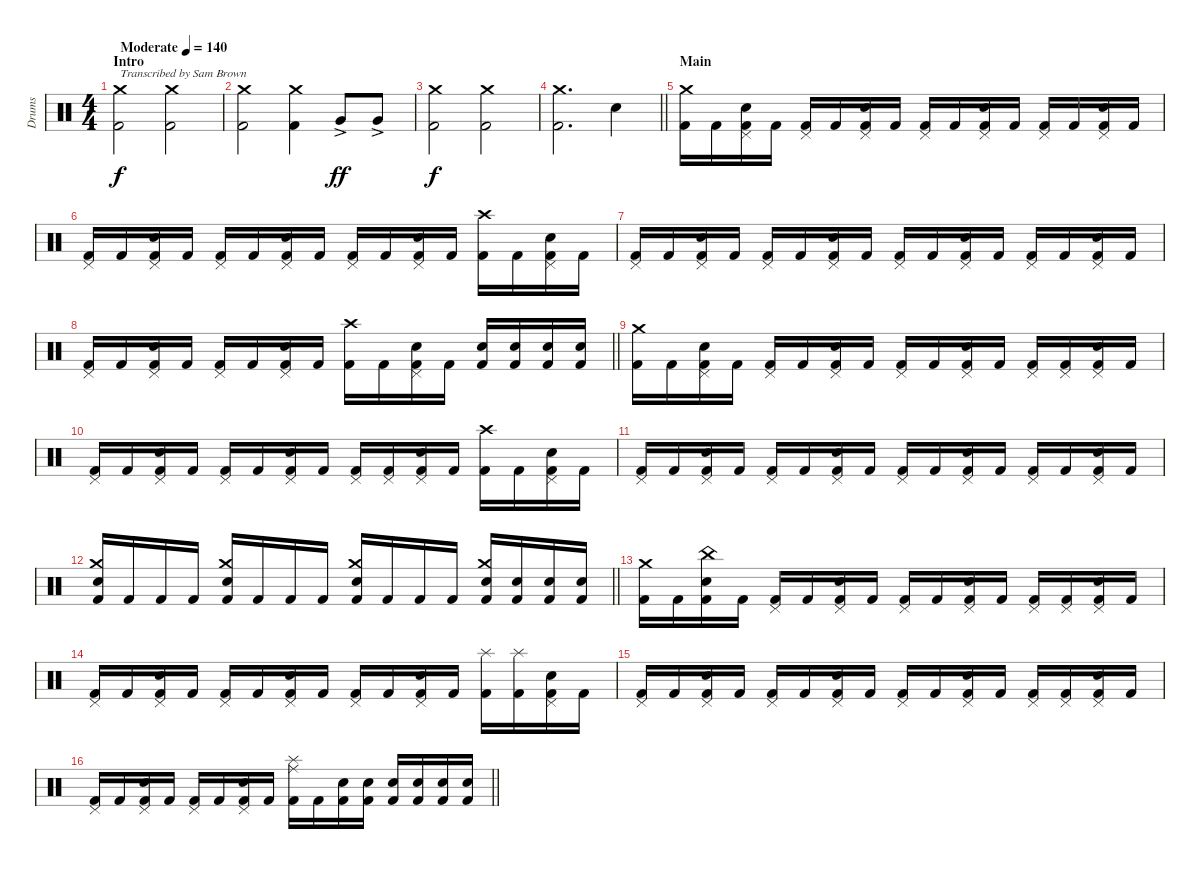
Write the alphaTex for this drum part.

\track ("Drums" "Drums") {instrument percussion}
\staff {score}
\articulation defaults
\ts (4 4)
\section ("" "Intro")
\tempo (140 "Moderate")
\clef neutral
\ks c
("Kick (hit) 2" "Crash medium (hit)").2{txt "Transcribed by Sam Brown" dy f} ("Kick (hit) 2" "Crash medium (hit)").2 |
("Kick (hit) 2" "Crash medium (hit)").2 ("Kick (hit) 2" "Crash medium (hit)").4 "Very Low Tom (hit)"{ac}.8{dy ff} "Very Low Tom (hit)"{ac}.8 |
("Kick (hit) 2" "Crash medium (hit)").2{dy f} ("Kick (hit) 2" "Crash medium (hit)").2 |
\barLineRight lightlight
("Kick (hit) 2" "Crash medium (hit)").2{d} "Snare (hit) 2".4 |
\section ("" "Main")
("Kick (hit) 2" "Crash medium (hit)").16 "Kick (hit) 2".16 ("Kick (hit) 2" "Snare (hit) 2" "Pedal Hi-Hat (hit)").16 "Kick (hit) 2".16 ("Kick (hit) 2" "Pedal Hi-Hat (hit)").16 "Kick (hit) 2".16 ("Kick (hit) 2" "Snare (hit) 2" "Pedal Hi-Hat (hit)").16 "Kick (hit) 2".16 ("Kick (hit) 2" "Pedal Hi-Hat (hit)").16 "Kick (hit) 2".16 ("Kick (hit) 2" "Snare (hit) 2" "Pedal Hi-Hat (hit)").16 "Kick (hit) 2".16 ("Kick (hit) 2" "Pedal Hi-Hat (hit)").16 "Kick (hit) 2".16 ("Kick (hit) 2" "Snare (hit) 2" "Pedal Hi-Hat (hit)").16 "Kick (hit) 2".16 |
("Kick (hit) 2" "Pedal Hi-Hat (hit)").16 "Kick (hit) 2".16 ("Kick (hit) 2" "Snare (hit) 2" "Pedal Hi-Hat (hit)").16 "Kick (hit) 2".16 ("Kick (hit) 2" "Pedal Hi-Hat (hit)").16 "Kick (hit) 2".16 ("Kick (hit) 2" "Snare (hit) 2" "Pedal Hi-Hat (hit)").16 "Kick (hit) 2".16 ("Kick (hit) 2" "Pedal Hi-Hat (hit)").16 "Kick (hit) 2".16 ("Kick (hit) 2" "Snare (hit) 2" "Pedal Hi-Hat (hit)").16 "Kick (hit) 2".16 ("Kick (hit) 2" "Crash high (hit)").16 "Kick (hit) 2".16 ("Kick (hit) 2" "Snare (hit) 2" "Pedal Hi-Hat (hit)").16 "Kick (hit) 2".16 |
("Kick (hit) 2" "Pedal Hi-Hat (hit)").16 "Kick (hit) 2".16 ("Kick (hit) 2" "Snare (hit) 2" "Pedal Hi-Hat (hit)").16 "Kick (hit) 2".16 ("Kick (hit) 2" "Pedal Hi-Hat (hit)").16 "Kick (hit) 2".16 ("Kick (hit) 2" "Snare (hit) 2" "Pedal Hi-Hat (hit)").16 "Kick (hit) 2".16 ("Kick (hit) 2" "Pedal Hi-Hat (hit)").16 "Kick (hit) 2".16 ("Kick (hit) 2" "Snare (hit) 2" "Pedal Hi-Hat (hit)").16 "Kick (hit) 2".16 ("Kick (hit) 2" "Pedal Hi-Hat (hit)").16 "Kick (hit) 2".16 ("Kick (hit) 2" "Snare (hit) 2" "Pedal Hi-Hat (hit)").16 "Kick (hit) 2".16 |
\barLineRight lightlight
("Kick (hit) 2" "Pedal Hi-Hat (hit)").16 "Kick (hit) 2".16 ("Kick (hit) 2" "Snare (hit) 2" "Pedal Hi-Hat (hit)").16 "Kick (hit) 2".16 ("Kick (hit) 2" "Pedal Hi-Hat (hit)").16 "Kick (hit) 2".16 ("Kick (hit) 2" "Snare (hit) 2" "Pedal Hi-Hat (hit)").16 "Kick (hit) 2".16 ("Kick (hit) 2" "Crash high (hit)").16 "Kick (hit) 2".16 ("Kick (hit) 2" "Snare (hit) 2" "Pedal Hi-Hat (hit)").16 "Kick (hit) 2".16 ("Kick (hit) 2" "Snare (hit) 2").16 ("Kick (hit) 2" "Snare (hit) 2").16 ("Kick (hit) 2" "Snare (hit) 2").16 ("Kick (hit) 2" "Snare (hit) 2").16 |
\section ("" "")
("Kick (hit) 2" "Crash medium (hit)").16 "Kick (hit) 2".16 ("Kick (hit) 2" "Snare (hit) 2" "Pedal Hi-Hat (hit)").16 "Kick (hit) 2".16 ("Kick (hit) 2" "Pedal Hi-Hat (hit)").16 "Kick (hit) 2".16 ("Kick (hit) 2" "Snare (hit) 2" "Pedal Hi-Hat (hit)").16 "Kick (hit) 2".16 ("Kick (hit) 2" "Pedal Hi-Hat (hit)").16 "Kick (hit) 2".16 ("Kick (hit) 2" "Snare (hit) 2" "Pedal Hi-Hat (hit)").16 "Kick (hit) 2".16 ("Kick (hit) 2" "Pedal Hi-Hat (hit)").16 ("Kick (hit) 2" "Pedal Hi-Hat (hit)").16 ("Kick (hit) 2" "Snare (hit) 2" "Pedal Hi-Hat (hit)").16 "Kick (hit) 2".16 |
("Kick (hit) 2" "Pedal Hi-Hat (hit)").16 "Kick (hit) 2".16 ("Kick (hit) 2" "Snare (hit) 2" "Pedal Hi-Hat (hit)").16 "Kick (hit) 2".16 ("Kick (hit) 2" "Pedal Hi-Hat (hit)").16 "Kick (hit) 2".16 ("Kick (hit) 2" "Snare (hit) 2" "Pedal Hi-Hat (hit)").16 "Kick (hit) 2".16 ("Kick (hit) 2" "Pedal Hi-Hat (hit)").16 ("Kick (hit) 2" "Pedal Hi-Hat (hit)").16 ("Kick (hit) 2" "Snare (hit) 2" "Pedal Hi-Hat (hit)").16 "Kick (hit) 2".16 ("Kick (hit) 2" "Crash high (hit)").16 "Kick (hit) 2".16 ("Kick (hit) 2" "Snare (hit) 2" "Pedal Hi-Hat (hit)").16 "Kick (hit) 2".16 |
("Kick (hit) 2" "Pedal Hi-Hat (hit)").16 "Kick (hit) 2".16 ("Kick (hit) 2" "Snare (hit) 2" "Pedal Hi-Hat (hit)").16 "Kick (hit) 2".16 ("Kick (hit) 2" "Pedal Hi-Hat (hit)").16 "Kick (hit) 2".16 ("Kick (hit) 2" "Snare (hit) 2" "Pedal Hi-Hat (hit)").16 "Kick (hit) 2".16 ("Kick (hit) 2" "Pedal Hi-Hat (hit)").16 "Kick (hit) 2".16 ("Kick (hit) 2" "Snare (hit) 2" "Pedal Hi-Hat (hit)").16 "Kick (hit) 2".16 ("Kick (hit) 2" "Pedal Hi-Hat (hit)").16 "Kick (hit) 2".16 ("Kick (hit) 2" "Snare (hit) 2" "Pedal Hi-Hat (hit)").16 "Kick (hit) 2".16 |
\barLineRight lightlight
("Kick (hit) 2" "Snare (hit) 2" "Crash medium (hit)").16 "Kick (hit) 2".16 "Kick (hit) 2".16 "Kick (hit) 2".16 ("Kick (hit) 2" "Snare (hit) 2" "Crash medium (hit)").16 "Kick (hit) 2".16 "Kick (hit) 2".16 "Kick (hit) 2".16 ("Kick (hit) 2" "Snare (hit) 2" "Crash medium (hit)").16 "Kick (hit) 2".16 "Kick (hit) 2".16 "Kick (hit) 2".16 ("Kick (hit) 2" "Snare (hit) 2" "Crash medium (hit)").16 ("Kick (hit) 2" "Snare (hit) 2").16 ("Kick (hit) 2" "Snare (hit) 2").16 ("Kick (hit) 2" "Snare (hit) 2").16 |
\section ("" "")
("Kick (hit) 2" "Crash medium (hit)").16 "Kick (hit) 2".16 ("Kick (hit) 2" "Snare (hit) 2" "China (hit)").16 "Kick (hit) 2".16 ("Kick (hit) 2" "Pedal Hi-Hat (hit)").16 "Kick (hit) 2".16 ("Kick (hit) 2" "Snare (hit) 2" "Pedal Hi-Hat (hit)").16 "Kick (hit) 2".16 ("Kick (hit) 2" "Pedal Hi-Hat (hit)").16 "Kick (hit) 2".16 ("Kick (hit) 2" "Snare (hit) 2" "Pedal Hi-Hat (hit)").16 "Kick (hit) 2".16 ("Kick (hit) 2" "Pedal Hi-Hat (hit)").16 ("Kick (hit) 2" "Pedal Hi-Hat (hit)").16 ("Kick (hit) 2" "Snare (hit) 2" "Pedal Hi-Hat (hit)").16 "Kick (hit) 2".16 |
("Kick (hit) 2" "Pedal Hi-Hat (hit)").16 "Kick (hit) 2".16 ("Kick (hit) 2" "Snare (hit) 2" "Pedal Hi-Hat (hit)").16 "Kick (hit) 2".16 ("Kick (hit) 2" "Pedal Hi-Hat (hit)").16 "Kick (hit) 2".16 ("Kick (hit) 2" "Snare (hit) 2" "Pedal Hi-Hat (hit)").16 "Kick (hit) 2".16 ("Kick (hit) 2" "Pedal Hi-Hat (hit)").16 "Kick (hit) 2".16 ("Kick (hit) 2" "Snare (hit) 2" "Pedal Hi-Hat (hit)").16 "Kick (hit) 2".16 ("Kick (hit) 2" "Splash (hit)").16 ("Kick (hit) 2" "Splash (hit)").16 ("Kick (hit) 2" "Snare (hit) 2" "Pedal Hi-Hat (hit)").16 "Kick (hit) 2".16 |
("Kick (hit) 2" "Pedal Hi-Hat (hit)").16 "Kick (hit) 2".16 ("Kick (hit) 2" "Snare (hit) 2" "Pedal Hi-Hat (hit)").16 "Kick (hit) 2".16 ("Kick (hit) 2" "Pedal Hi-Hat (hit)").16 "Kick (hit) 2".16 ("Kick (hit) 2" "Snare (hit) 2" "Pedal Hi-Hat (hit)").16 "Kick (hit) 2".16 ("Kick (hit) 2" "Pedal Hi-Hat (hit)").16 "Kick (hit) 2".16 ("Kick (hit) 2" "Snare (hit) 2" "Pedal Hi-Hat (hit)").16 "Kick (hit) 2".16 ("Kick (hit) 2" "Pedal Hi-Hat (hit)").16 ("Kick (hit) 2" "Pedal Hi-Hat (hit)").16 ("Kick (hit) 2" "Snare (hit) 2" "Pedal Hi-Hat (hit)").16 "Kick (hit) 2".16 |
\barLineRight lightlight
("Kick (hit) 2" "Pedal Hi-Hat (hit)").16 "Kick (hit) 2".16 ("Kick (hit) 2" "Snare (hit) 2" "Pedal Hi-Hat (hit)").16 "Kick (hit) 2".16 ("Kick (hit) 2" "Pedal Hi-Hat (hit)").16 "Kick (hit) 2".16 ("Kick (hit) 2" "Snare (hit) 2" "Pedal Hi-Hat (hit)").16 "Kick (hit) 2".16 ("Kick (hit) 2" "Splash (hit)" "Ride (middle)").16 "Kick (hit) 2".16 ("Kick (hit) 2" "Snare (hit) 2").16 ("Kick (hit) 2" "Snare (hit) 2").16 ("Kick (hit) 2" "Snare (hit) 2").16 ("Kick (hit) 2" "Snare (hit) 2").16 ("Kick (hit) 2" "Snare (hit) 2").16 ("Kick (hit) 2" "Snare (hit) 2").16
